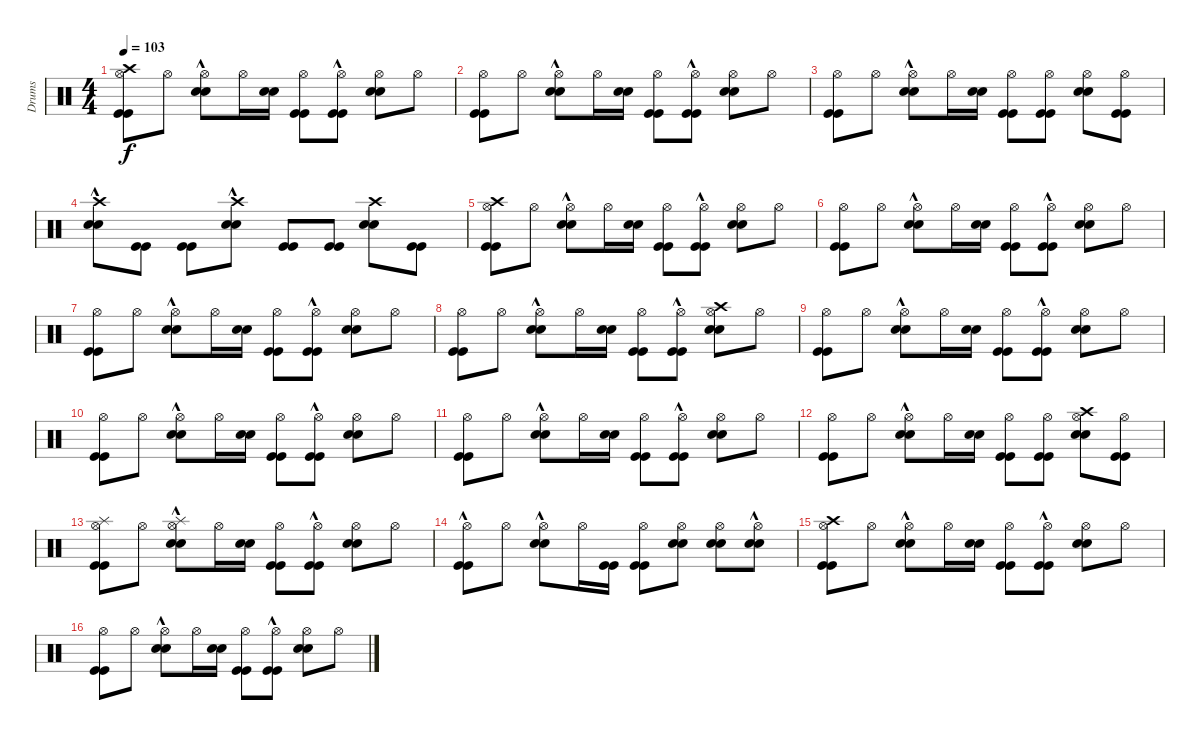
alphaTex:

\track ("Drums" "Drums") {instrument percussion}
\staff {score}
\articulation defaults
\ts (4 4)
\tempo 103
\clef neutral
\ks c
("Kick (hit)" "Kick (hit)" "Hi-Hat (open)" "Crash high (hit)").8{dy f} "Hi-Hat (open)".8 ("Snare (hit) 2"{hac} "Snare (hit) 2"{hac} "Hi-Hat (open)").8 "Hi-Hat (open)".16 ("Snare (hit) 2" "Snare (hit) 2").16 ("Kick (hit)" "Kick (hit)" "Hi-Hat (open)").8 ("Kick (hit)"{hac} "Kick (hit)"{hac} "Hi-Hat (open)").8 ("Snare (hit) 2" "Snare (hit) 2" "Hi-Hat (open)").8 "Hi-Hat (open)".8 |
("Kick (hit)" "Kick (hit)" "Hi-Hat (open)").8 "Hi-Hat (open)".8 ("Snare (hit) 2"{hac} "Snare (hit) 2"{hac} "Hi-Hat (open)").8 "Hi-Hat (open)".16 ("Snare (hit) 2" "Snare (hit) 2").16 ("Kick (hit)" "Kick (hit)" "Hi-Hat (open)").8 ("Kick (hit)"{hac} "Kick (hit)"{hac} "Hi-Hat (open)").8 ("Snare (hit) 2" "Snare (hit) 2" "Hi-Hat (open)").8 "Hi-Hat (open)".8 |
("Kick (hit)" "Kick (hit)" "Hi-Hat (open)").8 "Hi-Hat (open)".8 ("Snare (hit) 2"{hac} "Snare (hit) 2"{hac} "Hi-Hat (open)").8 "Hi-Hat (open)".16 ("Snare (hit) 2" "Snare (hit) 2").16 ("Kick (hit)" "Kick (hit)" "Hi-Hat (open)").8 ("Kick (hit)" "Kick (hit)" "Hi-Hat (open)").8 ("Snare (hit) 2" "Snare (hit) 2" "Hi-Hat (open)").8 ("Kick (hit)" "Kick (hit)" "Hi-Hat (open)").8 |
("Snare (hit) 2"{hac} "Snare (hit) 2"{hac} "Crash high (hit)"{hac}).8 ("Kick (hit)" "Kick (hit)").8 ("Kick (hit)" "Kick (hit)").8 ("Snare (hit) 2"{hac} "Snare (hit) 2"{hac} "Crash high (hit)"{hac}).8 ("Kick (hit)" "Kick (hit)").8 ("Kick (hit)" "Kick (hit)").8 ("Snare (hit) 2" "Snare (hit) 2" "Crash high (hit)").8 ("Kick (hit)" "Kick (hit)").8 |
("Kick (hit)" "Kick (hit)" "Hi-Hat (open)" "Crash high (hit)").8 "Hi-Hat (open)".8 ("Snare (hit) 2"{hac} "Snare (hit) 2"{hac} "Hi-Hat (open)").8 "Hi-Hat (open)".16 ("Snare (hit) 2" "Snare (hit) 2").16 ("Kick (hit)" "Kick (hit)" "Hi-Hat (open)").8 ("Kick (hit)"{hac} "Kick (hit)"{hac} "Hi-Hat (open)").8 ("Snare (hit) 2" "Snare (hit) 2" "Hi-Hat (open)").8 "Hi-Hat (open)".8 |
("Kick (hit)" "Kick (hit)" "Hi-Hat (open)").8 "Hi-Hat (open)".8 ("Snare (hit) 2"{hac} "Snare (hit) 2"{hac} "Hi-Hat (open)").8 "Hi-Hat (open)".16 ("Snare (hit) 2" "Snare (hit) 2").16 ("Kick (hit)" "Kick (hit)" "Hi-Hat (open)").8 ("Kick (hit)"{hac} "Kick (hit)"{hac} "Hi-Hat (open)").8 ("Snare (hit) 2" "Snare (hit) 2" "Hi-Hat (open)").8 "Hi-Hat (open)".8 |
("Kick (hit)" "Kick (hit)" "Hi-Hat (open)").8 "Hi-Hat (open)".8 ("Snare (hit) 2"{hac} "Snare (hit) 2"{hac} "Hi-Hat (open)").8 "Hi-Hat (open)".16 ("Snare (hit) 2" "Snare (hit) 2").16 ("Kick (hit)" "Kick (hit)" "Hi-Hat (open)").8 ("Kick (hit)"{hac} "Kick (hit)"{hac} "Hi-Hat (open)").8 ("Snare (hit) 2" "Snare (hit) 2" "Hi-Hat (open)").8 "Hi-Hat (open)".8 |
("Kick (hit)" "Kick (hit)" "Hi-Hat (open)").8 "Hi-Hat (open)".8 ("Snare (hit) 2"{hac} "Snare (hit) 2"{hac} "Hi-Hat (open)").8 "Hi-Hat (open)".16 ("Snare (hit) 2" "Snare (hit) 2").16 ("Kick (hit)" "Kick (hit)" "Hi-Hat (open)").8 ("Kick (hit)"{hac} "Kick (hit)"{hac} "Hi-Hat (open)").8 ("Snare (hit) 2" "Snare (hit) 2" "Hi-Hat (open)" "Crash high (hit)").8 "Hi-Hat (open)".8 |
("Kick (hit)" "Kick (hit)" "Hi-Hat (open)").8 "Hi-Hat (open)".8 ("Snare (hit) 2"{hac} "Snare (hit) 2"{hac} "Hi-Hat (open)").8 "Hi-Hat (open)".16 ("Snare (hit) 2" "Snare (hit) 2").16 ("Kick (hit)" "Kick (hit)" "Hi-Hat (open)").8 ("Kick (hit)"{hac} "Kick (hit)"{hac} "Hi-Hat (open)").8 ("Snare (hit) 2" "Snare (hit) 2" "Hi-Hat (open)").8 "Hi-Hat (open)".8 |
("Kick (hit)" "Kick (hit)" "Hi-Hat (open)").8 "Hi-Hat (open)".8 ("Snare (hit) 2"{hac} "Snare (hit) 2"{hac} "Hi-Hat (open)").8 "Hi-Hat (open)".16 ("Snare (hit) 2" "Snare (hit) 2").16 ("Kick (hit)" "Kick (hit)" "Hi-Hat (open)").8 ("Kick (hit)"{hac} "Kick (hit)"{hac} "Hi-Hat (open)").8 ("Snare (hit) 2" "Snare (hit) 2" "Hi-Hat (open)").8 "Hi-Hat (open)".8 |
("Kick (hit)" "Kick (hit)" "Hi-Hat (open)").8 "Hi-Hat (open)".8 ("Snare (hit) 2"{hac} "Snare (hit) 2"{hac} "Hi-Hat (open)").8 "Hi-Hat (open)".16 ("Snare (hit) 2" "Snare (hit) 2").16 ("Kick (hit)" "Kick (hit)" "Hi-Hat (open)").8 ("Kick (hit)"{hac} "Kick (hit)"{hac} "Hi-Hat (open)").8 ("Snare (hit) 2" "Snare (hit) 2" "Hi-Hat (open)").8 "Hi-Hat (open)".8 |
("Kick (hit)" "Kick (hit)" "Hi-Hat (open)").8 "Hi-Hat (open)".8 ("Snare (hit) 2"{hac} "Snare (hit) 2"{hac} "Hi-Hat (open)").8 "Hi-Hat (open)".16 ("Snare (hit) 2" "Snare (hit) 2").16 ("Kick (hit)" "Kick (hit)" "Hi-Hat (open)").8 ("Kick (hit)" "Kick (hit)" "Hi-Hat (open)").8 ("Snare (hit) 2" "Snare (hit) 2" "Hi-Hat (open)" "Crash high (hit)").8 ("Kick (hit)" "Kick (hit)" "Hi-Hat (open)").8 |
("Kick (hit)" "Kick (hit)" "Hi-Hat (open)" "Splash (hit)").8 "Hi-Hat (open)".8 ("Snare (hit) 2"{hac} "Snare (hit) 2"{hac} "Hi-Hat (open)" "Splash (hit)").8 "Hi-Hat (open)".16 ("Snare (hit) 2" "Snare (hit) 2").16 ("Kick (hit)" "Kick (hit)" "Hi-Hat (open)").8 ("Kick (hit)"{hac} "Kick (hit)"{hac} "Hi-Hat (open)").8 ("Snare (hit) 2" "Snare (hit) 2" "Hi-Hat (open)").8 "Hi-Hat (open)".8 |
("Kick (hit)"{hac} "Kick (hit)"{hac} "Hi-Hat (open)").8 "Hi-Hat (open)".8 ("Snare (hit) 2"{hac} "Snare (hit) 2"{hac} "Hi-Hat (open)").8 "Hi-Hat (open)".16 ("Kick (hit)" "Kick (hit)").16 ("Kick (hit)" "Kick (hit)" "Hi-Hat (open)").8 ("Snare (hit) 2" "Snare (hit) 2" "Hi-Hat (open)").8 ("Snare (hit) 2" "Snare (hit) 2" "Hi-Hat (open)").8 ("Snare (hit) 2"{hac} "Snare (hit) 2"{hac} "Hi-Hat (open)").8 |
("Kick (hit)" "Kick (hit)" "Hi-Hat (open)" "Crash high (hit)").8 "Hi-Hat (open)".8 ("Snare (hit) 2"{hac} "Snare (hit) 2"{hac} "Hi-Hat (open)").8 "Hi-Hat (open)".16 ("Snare (hit) 2" "Snare (hit) 2").16 ("Kick (hit)" "Kick (hit)" "Hi-Hat (open)").8 ("Kick (hit)"{hac} "Kick (hit)"{hac} "Hi-Hat (open)").8 ("Snare (hit) 2" "Snare (hit) 2" "Hi-Hat (open)").8 "Hi-Hat (open)".8 |
("Kick (hit)" "Kick (hit)" "Hi-Hat (open)").8 "Hi-Hat (open)".8 ("Snare (hit) 2"{hac} "Snare (hit) 2"{hac} "Hi-Hat (open)").8 "Hi-Hat (open)".16 ("Snare (hit) 2" "Snare (hit) 2").16 ("Kick (hit)" "Kick (hit)" "Hi-Hat (open)").8 ("Kick (hit)"{hac} "Kick (hit)"{hac} "Hi-Hat (open)").8 ("Snare (hit) 2" "Snare (hit) 2" "Hi-Hat (open)").8 "Hi-Hat (open)".8
